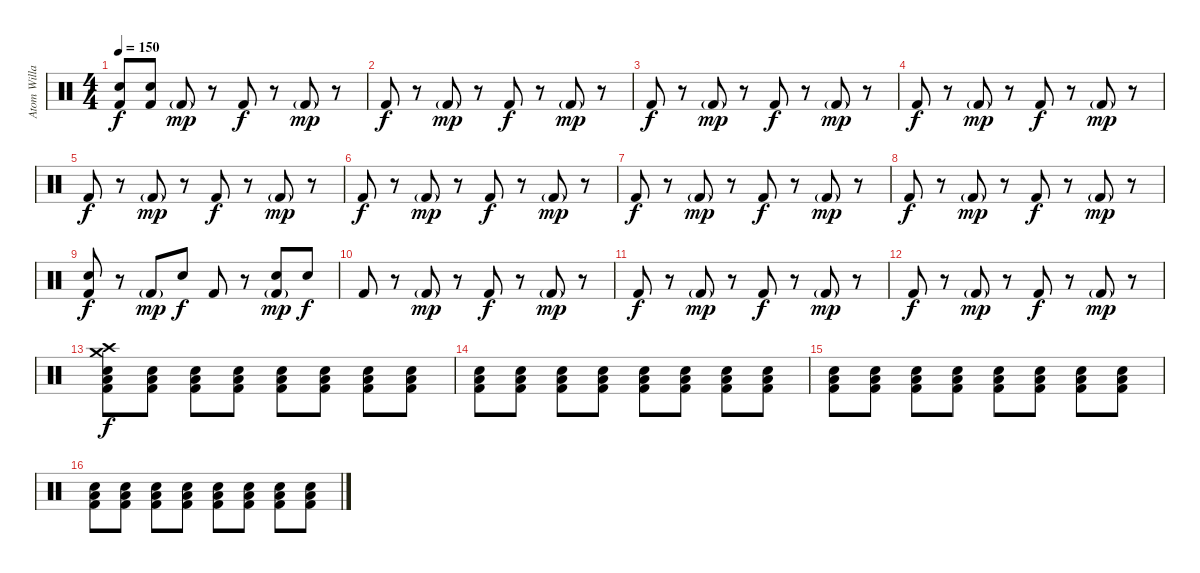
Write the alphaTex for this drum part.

\track ("Atom Willard Drums" "Atom Willa") {instrument percussion}
\staff {score}
\articulation defaults
\ts (4 4)
\tempo 150
\clef neutral
\ks c
("Electric Snare (hit)" "Kick (hit) 2").8{dy f} ("Electric Snare (hit)" "Kick (hit) 2").8 "Kick (hit) 2"{g}.8{dy mp} r.8 "Kick (hit) 2".8{dy f} r.8 "Kick (hit) 2"{g}.8{dy mp} r.8 |
"Kick (hit) 2".8{dy f} r.8 "Kick (hit) 2"{g}.8{dy mp} r.8 "Kick (hit) 2".8{dy f} r.8 "Kick (hit) 2"{g}.8{dy mp} r.8 |
"Kick (hit) 2".8{dy f} r.8 "Kick (hit) 2"{g}.8{dy mp} r.8 "Kick (hit) 2".8{dy f} r.8 "Kick (hit) 2"{g}.8{dy mp} r.8 |
"Kick (hit) 2".8{dy f} r.8 "Kick (hit) 2"{g}.8{dy mp} r.8 "Kick (hit) 2".8{dy f} r.8 "Kick (hit) 2"{g}.8{dy mp} r.8 |
"Kick (hit) 2".8{dy f} r.8 "Kick (hit) 2"{g}.8{dy mp} r.8 "Kick (hit) 2".8{dy f} r.8 "Kick (hit) 2"{g}.8{dy mp} r.8 |
"Kick (hit) 2".8{dy f} r.8 "Kick (hit) 2"{g}.8{dy mp} r.8 "Kick (hit) 2".8{dy f} r.8 "Kick (hit) 2"{g}.8{dy mp} r.8 |
"Kick (hit) 2".8{dy f} r.8 "Kick (hit) 2"{g}.8{dy mp} r.8 "Kick (hit) 2".8{dy f} r.8 "Kick (hit) 2"{g}.8{dy mp} r.8 |
"Kick (hit) 2".8{dy f} r.8 "Kick (hit) 2"{g}.8{dy mp} r.8 "Kick (hit) 2".8{dy f} r.8 "Kick (hit) 2"{g}.8{dy mp} r.8 |
("Electric Snare (hit)" "Kick (hit) 2").8{dy f} r.8 "Kick (hit) 2"{g}.8{dy mp} "Electric Snare (hit)".8{dy f} "Kick (hit) 2".8 r.8 ("Electric Snare (hit)" "Kick (hit) 2"{g}).8{dy mp} "Electric Snare (hit)".8{dy f} |
"Kick (hit) 2".8 r.8 "Kick (hit) 2"{g}.8{dy mp} r.8 "Kick (hit) 2".8{dy f} r.8 "Kick (hit) 2"{g}.8{dy mp} r.8 |
"Kick (hit) 2".8{dy f} r.8 "Kick (hit) 2"{g}.8{dy mp} r.8 "Kick (hit) 2".8{dy f} r.8 "Kick (hit) 2"{g}.8{dy mp} r.8 |
"Kick (hit) 2".8{dy f} r.8 "Kick (hit) 2"{g}.8{dy mp} r.8 "Kick (hit) 2".8{dy f} r.8 "Kick (hit) 2"{g}.8{dy mp} r.8 |
("Crash medium (hit)" "Crash high (hit)" "Low Tom (hit)" "Electric Snare (hit)" "Kick (hit) 2").8{dy f} ("Low Tom (hit)" "Electric Snare (hit)" "Kick (hit) 2").8 ("Low Tom (hit)" "Electric Snare (hit)" "Kick (hit) 2").8 ("Low Tom (hit)" "Electric Snare (hit)" "Kick (hit) 2").8 ("Low Tom (hit)" "Electric Snare (hit)" "Kick (hit) 2").8 ("Low Tom (hit)" "Electric Snare (hit)" "Kick (hit) 2").8 ("Low Tom (hit)" "Electric Snare (hit)" "Kick (hit) 2").8 ("Low Tom (hit)" "Electric Snare (hit)" "Kick (hit) 2").8 |
("Low Tom (hit)" "Electric Snare (hit)" "Kick (hit) 2").8 ("Low Tom (hit)" "Electric Snare (hit)" "Kick (hit) 2").8 ("Low Tom (hit)" "Electric Snare (hit)" "Kick (hit) 2").8 ("Low Tom (hit)" "Electric Snare (hit)" "Kick (hit) 2").8 ("Low Tom (hit)" "Electric Snare (hit)" "Kick (hit) 2").8 ("Low Tom (hit)" "Electric Snare (hit)" "Kick (hit) 2").8 ("Low Tom (hit)" "Electric Snare (hit)" "Kick (hit) 2").8 ("Low Tom (hit)" "Electric Snare (hit)" "Kick (hit) 2").8 |
("Low Tom (hit)" "Electric Snare (hit)" "Kick (hit) 2").8 ("Low Tom (hit)" "Electric Snare (hit)" "Kick (hit) 2").8 ("Low Tom (hit)" "Electric Snare (hit)" "Kick (hit) 2").8 ("Low Tom (hit)" "Electric Snare (hit)" "Kick (hit) 2").8 ("Low Tom (hit)" "Electric Snare (hit)" "Kick (hit) 2").8 ("Low Tom (hit)" "Electric Snare (hit)" "Kick (hit) 2").8 ("Low Tom (hit)" "Electric Snare (hit)" "Kick (hit) 2").8 ("Low Tom (hit)" "Electric Snare (hit)" "Kick (hit) 2").8 |
("Low Tom (hit)" "Electric Snare (hit)" "Kick (hit) 2").8 ("Low Tom (hit)" "Electric Snare (hit)" "Kick (hit) 2").8 ("Low Tom (hit)" "Electric Snare (hit)" "Kick (hit) 2").8 ("Low Tom (hit)" "Electric Snare (hit)" "Kick (hit) 2").8 ("Low Tom (hit)" "Electric Snare (hit)" "Kick (hit) 2").8 ("Low Tom (hit)" "Electric Snare (hit)" "Kick (hit) 2").8 ("Low Tom (hit)" "Electric Snare (hit)" "Kick (hit) 2").8 ("Low Tom (hit)" "Electric Snare (hit)" "Kick (hit) 2").8
